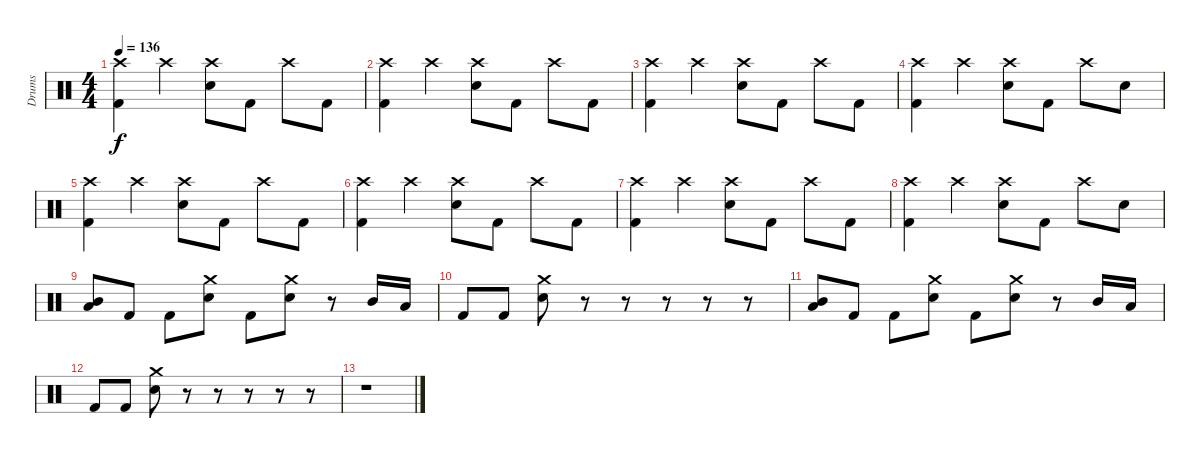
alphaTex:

\track ("Drums" "Drums") {instrument percussion}
\staff {score}
\articulation defaults
\ts (4 4)
\tempo 136
\clef neutral
\ks c
("Crash high (hit)" "Kick (hit) 2").4{dy f} "Crash high (hit)".4 ("Crash high (hit)" "Electric Snare (hit)").8 "Kick (hit) 2".8 "Crash high (hit)".8 "Kick (hit) 2".8 |
("Crash high (hit)" "Kick (hit) 2").4 "Crash high (hit)".4 ("Crash high (hit)" "Electric Snare (hit)").8 "Kick (hit) 2".8 "Crash high (hit)".8 "Kick (hit) 2".8 |
("Crash high (hit)" "Kick (hit) 2").4 "Crash high (hit)".4 ("Crash high (hit)" "Electric Snare (hit)").8 "Kick (hit) 2".8 "Crash high (hit)".8 "Kick (hit) 2".8 |
("Crash high (hit)" "Kick (hit) 2").4 "Crash high (hit)".4 ("Crash high (hit)" "Electric Snare (hit)").8 "Kick (hit) 2".8 "Crash high (hit)".8 "Electric Snare (hit)".8 |
("Crash high (hit)" "Kick (hit) 2").4 "Crash high (hit)".4 ("Crash high (hit)" "Electric Snare (hit)").8 "Kick (hit) 2".8 "Crash high (hit)".8 "Kick (hit) 2".8 |
("Crash high (hit)" "Kick (hit) 2").4 "Crash high (hit)".4 ("Crash high (hit)" "Electric Snare (hit)").8 "Kick (hit) 2".8 "Crash high (hit)".8 "Kick (hit) 2".8 |
("Crash high (hit)" "Kick (hit) 2").4 "Crash high (hit)".4 ("Crash high (hit)" "Electric Snare (hit)").8 "Kick (hit) 2".8 "Crash high (hit)".8 "Kick (hit) 2".8 |
("Crash high (hit)" "Kick (hit) 2").4 "Crash high (hit)".4 ("Crash high (hit)" "Electric Snare (hit)").8 "Kick (hit) 2".8 "Crash high (hit)".8 "Electric Snare (hit)".8 |
("Mid Tom (hit)" "Low Tom (hit)").8 "Kick (hit) 2".8 "Kick (hit) 2".8 ("Crash medium (hit)" "Electric Snare (hit)").8 "Kick (hit) 2".8 ("Crash medium (hit)" "Electric Snare (hit)").8 r.8 "Mid Tom (hit)".16 "Low Tom (hit)".16 |
"Kick (hit) 2".8 "Kick (hit) 2".8 ("Crash medium (hit)" "Electric Snare (hit)").8 r.8 r.8 r.8 r.8 r.8 |
("Mid Tom (hit)" "Low Tom (hit)").8 "Kick (hit) 2".8 "Kick (hit) 2".8 ("Crash medium (hit)" "Electric Snare (hit)").8 "Kick (hit) 2".8 ("Crash medium (hit)" "Electric Snare (hit)").8 r.8 "Mid Tom (hit)".16 "Low Tom (hit)".16 |
"Kick (hit) 2".8 "Kick (hit) 2".8 ("Crash medium (hit)" "Electric Snare (hit)").8 r.8 r.8 r.8 r.8 r.8 |
r.1
